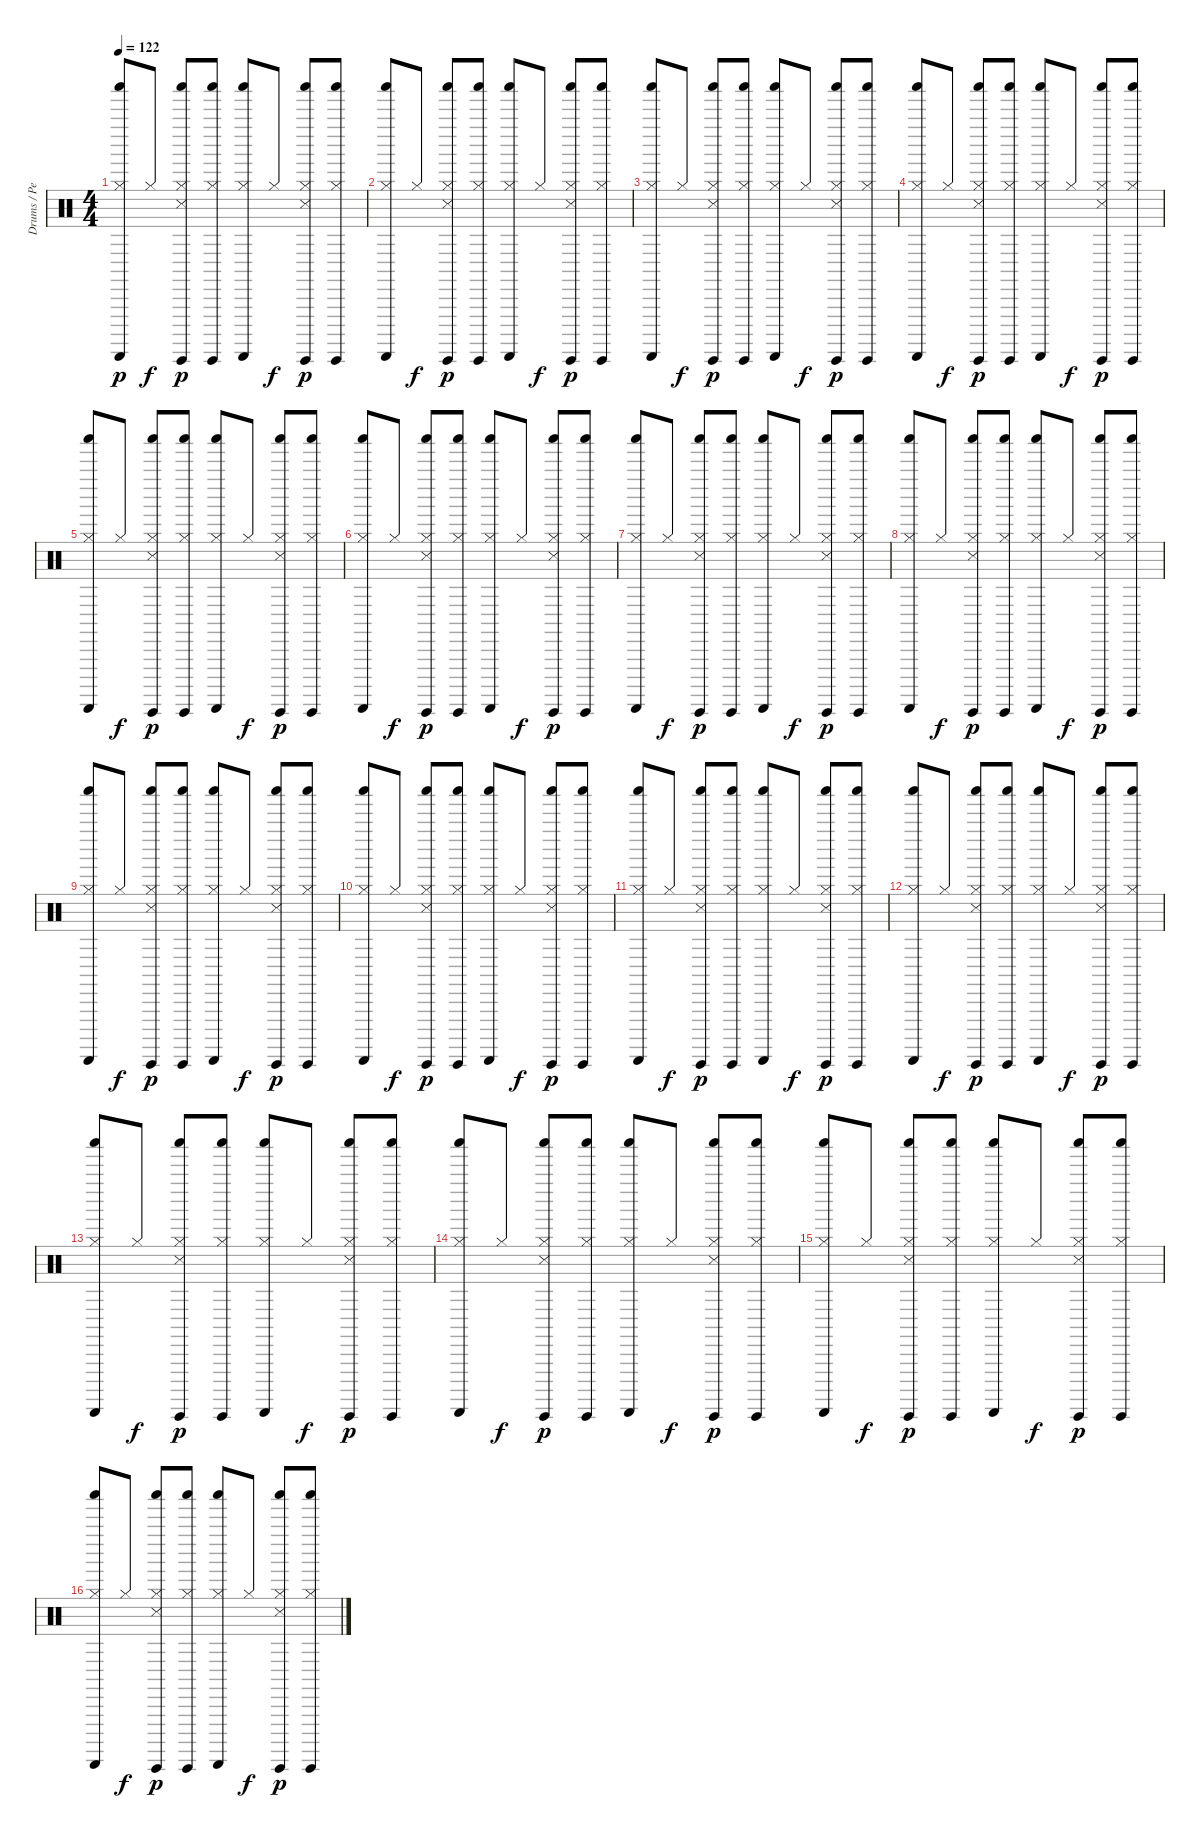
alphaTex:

\track ("Drums / Percussion" "Drums / Pe") {instrument percussion}
\staff {score}
\articulation defaults
\ts (4 4)
\tempo 122
\clef neutral
\ks c
("Hi-Hat (closed)" "Shaker (hit)" "Guiro (scrap-return)").8{dy p} "Hi-Hat (closed)".8{dy f} ("Hi-Hat (closed)" "Shaker (hit)" "Guiro (hit)" "Snare (side stick) 3").8{dy p} ("Hi-Hat (closed)" "Shaker (hit)" "Guiro (hit)").8 ("Hi-Hat (closed)" "Shaker (hit)" "Guiro (scrap-return)").8 "Hi-Hat (closed)".8{dy f} ("Hi-Hat (closed)" "Shaker (hit)" "Guiro (hit)" "Snare (side stick) 3").8{dy p} ("Hi-Hat (closed)" "Shaker (hit)" "Guiro (hit)").8 |
("Hi-Hat (closed)" "Shaker (hit)" "Guiro (scrap-return)").8 "Hi-Hat (closed)".8{dy f} ("Hi-Hat (closed)" "Shaker (hit)" "Guiro (hit)" "Snare (side stick) 3").8{dy p} ("Hi-Hat (closed)" "Shaker (hit)" "Guiro (hit)").8 ("Hi-Hat (closed)" "Shaker (hit)" "Guiro (scrap-return)").8 "Hi-Hat (closed)".8{dy f} ("Hi-Hat (closed)" "Shaker (hit)" "Guiro (hit)" "Snare (side stick) 3").8{dy p} ("Hi-Hat (closed)" "Shaker (hit)" "Guiro (hit)").8 |
("Hi-Hat (closed)" "Shaker (hit)" "Guiro (scrap-return)").8 "Hi-Hat (closed)".8{dy f} ("Hi-Hat (closed)" "Shaker (hit)" "Guiro (hit)" "Snare (side stick) 3").8{dy p} ("Hi-Hat (closed)" "Shaker (hit)" "Guiro (hit)").8 ("Hi-Hat (closed)" "Shaker (hit)" "Guiro (scrap-return)").8 "Hi-Hat (closed)".8{dy f} ("Hi-Hat (closed)" "Shaker (hit)" "Guiro (hit)" "Snare (side stick) 3").8{dy p} ("Hi-Hat (closed)" "Shaker (hit)" "Guiro (hit)").8 |
("Hi-Hat (closed)" "Shaker (hit)" "Guiro (scrap-return)").8 "Hi-Hat (closed)".8{dy f} ("Hi-Hat (closed)" "Shaker (hit)" "Guiro (hit)" "Snare (side stick) 3").8{dy p} ("Hi-Hat (closed)" "Shaker (hit)" "Guiro (hit)").8 ("Hi-Hat (closed)" "Shaker (hit)" "Guiro (scrap-return)").8 "Hi-Hat (closed)".8{dy f} ("Hi-Hat (closed)" "Shaker (hit)" "Guiro (hit)" "Snare (side stick) 3").8{dy p} ("Hi-Hat (closed)" "Shaker (hit)" "Guiro (hit)").8 |
("Hi-Hat (closed)" "Shaker (hit)" "Guiro (scrap-return)").8 "Hi-Hat (closed)".8{dy f} ("Hi-Hat (closed)" "Shaker (hit)" "Guiro (hit)" "Snare (side stick) 3").8{dy p} ("Hi-Hat (closed)" "Shaker (hit)" "Guiro (hit)").8 ("Hi-Hat (closed)" "Shaker (hit)" "Guiro (scrap-return)").8 "Hi-Hat (closed)".8{dy f} ("Hi-Hat (closed)" "Shaker (hit)" "Guiro (hit)" "Snare (side stick) 3").8{dy p} ("Hi-Hat (closed)" "Shaker (hit)" "Guiro (hit)").8 |
("Hi-Hat (closed)" "Shaker (hit)" "Guiro (scrap-return)").8 "Hi-Hat (closed)".8{dy f} ("Hi-Hat (closed)" "Shaker (hit)" "Guiro (hit)" "Snare (side stick) 3").8{dy p} ("Hi-Hat (closed)" "Shaker (hit)" "Guiro (hit)").8 ("Hi-Hat (closed)" "Shaker (hit)" "Guiro (scrap-return)").8 "Hi-Hat (closed)".8{dy f} ("Hi-Hat (closed)" "Shaker (hit)" "Guiro (hit)" "Snare (side stick) 3").8{dy p} ("Hi-Hat (closed)" "Shaker (hit)" "Guiro (hit)").8 |
("Hi-Hat (closed)" "Shaker (hit)" "Guiro (scrap-return)").8 "Hi-Hat (closed)".8{dy f} ("Hi-Hat (closed)" "Shaker (hit)" "Guiro (hit)" "Snare (side stick) 3").8{dy p} ("Hi-Hat (closed)" "Shaker (hit)" "Guiro (hit)").8 ("Hi-Hat (closed)" "Shaker (hit)" "Guiro (scrap-return)").8 "Hi-Hat (closed)".8{dy f} ("Hi-Hat (closed)" "Shaker (hit)" "Guiro (hit)" "Snare (side stick) 3").8{dy p} ("Hi-Hat (closed)" "Shaker (hit)" "Guiro (hit)").8 |
("Hi-Hat (closed)" "Shaker (hit)" "Guiro (scrap-return)").8 "Hi-Hat (closed)".8{dy f} ("Hi-Hat (closed)" "Shaker (hit)" "Guiro (hit)" "Snare (side stick) 3").8{dy p} ("Hi-Hat (closed)" "Shaker (hit)" "Guiro (hit)").8 ("Hi-Hat (closed)" "Shaker (hit)" "Guiro (scrap-return)").8 "Hi-Hat (closed)".8{dy f} ("Hi-Hat (closed)" "Shaker (hit)" "Guiro (hit)" "Snare (side stick) 3").8{dy p} ("Hi-Hat (closed)" "Shaker (hit)" "Guiro (hit)").8 |
("Hi-Hat (closed)" "Shaker (hit)" "Guiro (scrap-return)").8 "Hi-Hat (closed)".8{dy f} ("Hi-Hat (closed)" "Shaker (hit)" "Guiro (hit)" "Snare (side stick) 3").8{dy p} ("Hi-Hat (closed)" "Shaker (hit)" "Guiro (hit)").8 ("Hi-Hat (closed)" "Shaker (hit)" "Guiro (scrap-return)").8 "Hi-Hat (closed)".8{dy f} ("Hi-Hat (closed)" "Shaker (hit)" "Guiro (hit)" "Snare (side stick) 3").8{dy p} ("Hi-Hat (closed)" "Shaker (hit)" "Guiro (hit)").8 |
("Hi-Hat (closed)" "Shaker (hit)" "Guiro (scrap-return)").8 "Hi-Hat (closed)".8{dy f} ("Hi-Hat (closed)" "Shaker (hit)" "Guiro (hit)" "Snare (side stick) 3").8{dy p} ("Hi-Hat (closed)" "Shaker (hit)" "Guiro (hit)").8 ("Hi-Hat (closed)" "Shaker (hit)" "Guiro (scrap-return)").8 "Hi-Hat (closed)".8{dy f} ("Hi-Hat (closed)" "Shaker (hit)" "Guiro (hit)" "Snare (side stick) 3").8{dy p} ("Hi-Hat (closed)" "Shaker (hit)" "Guiro (hit)").8 |
("Hi-Hat (closed)" "Shaker (hit)" "Guiro (scrap-return)").8 "Hi-Hat (closed)".8{dy f} ("Hi-Hat (closed)" "Shaker (hit)" "Guiro (hit)" "Snare (side stick) 3").8{dy p} ("Hi-Hat (closed)" "Shaker (hit)" "Guiro (hit)").8 ("Hi-Hat (closed)" "Shaker (hit)" "Guiro (scrap-return)").8 "Hi-Hat (closed)".8{dy f} ("Hi-Hat (closed)" "Shaker (hit)" "Guiro (hit)" "Snare (side stick) 3").8{dy p} ("Hi-Hat (closed)" "Shaker (hit)" "Guiro (hit)").8 |
("Hi-Hat (closed)" "Shaker (hit)" "Guiro (scrap-return)").8 "Hi-Hat (closed)".8{dy f} ("Hi-Hat (closed)" "Shaker (hit)" "Guiro (hit)" "Snare (side stick) 3").8{dy p} ("Hi-Hat (closed)" "Shaker (hit)" "Guiro (hit)").8 ("Hi-Hat (closed)" "Shaker (hit)" "Guiro (scrap-return)").8 "Hi-Hat (closed)".8{dy f} ("Hi-Hat (closed)" "Shaker (hit)" "Guiro (hit)" "Snare (side stick) 3").8{dy p} ("Hi-Hat (closed)" "Shaker (hit)" "Guiro (hit)").8 |
("Hi-Hat (closed)" "Shaker (hit)" "Guiro (scrap-return)").8 "Hi-Hat (closed)".8{dy f} ("Hi-Hat (closed)" "Shaker (hit)" "Guiro (hit)" "Snare (side stick) 3").8{dy p} ("Hi-Hat (closed)" "Shaker (hit)" "Guiro (hit)").8 ("Hi-Hat (closed)" "Shaker (hit)" "Guiro (scrap-return)").8 "Hi-Hat (closed)".8{dy f} ("Hi-Hat (closed)" "Shaker (hit)" "Guiro (hit)" "Snare (side stick) 3").8{dy p} ("Hi-Hat (closed)" "Shaker (hit)" "Guiro (hit)").8 |
("Hi-Hat (closed)" "Shaker (hit)" "Guiro (scrap-return)").8 "Hi-Hat (closed)".8{dy f} ("Hi-Hat (closed)" "Shaker (hit)" "Guiro (hit)" "Snare (side stick) 3").8{dy p} ("Hi-Hat (closed)" "Shaker (hit)" "Guiro (hit)").8 ("Hi-Hat (closed)" "Shaker (hit)" "Guiro (scrap-return)").8 "Hi-Hat (closed)".8{dy f} ("Hi-Hat (closed)" "Shaker (hit)" "Guiro (hit)" "Snare (side stick) 3").8{dy p} ("Hi-Hat (closed)" "Shaker (hit)" "Guiro (hit)").8 |
("Hi-Hat (closed)" "Shaker (hit)" "Guiro (scrap-return)").8 "Hi-Hat (closed)".8{dy f} ("Hi-Hat (closed)" "Shaker (hit)" "Guiro (hit)" "Snare (side stick) 3").8{dy p} ("Hi-Hat (closed)" "Shaker (hit)" "Guiro (hit)").8 ("Hi-Hat (closed)" "Shaker (hit)" "Guiro (scrap-return)").8 "Hi-Hat (closed)".8{dy f} ("Hi-Hat (closed)" "Shaker (hit)" "Guiro (hit)" "Snare (side stick) 3").8{dy p} ("Hi-Hat (closed)" "Shaker (hit)" "Guiro (hit)").8 |
("Hi-Hat (closed)" "Shaker (hit)" "Guiro (scrap-return)").8 "Hi-Hat (closed)".8{dy f} ("Hi-Hat (closed)" "Shaker (hit)" "Guiro (hit)" "Snare (side stick) 3").8{dy p} ("Hi-Hat (closed)" "Shaker (hit)" "Guiro (hit)").8 ("Hi-Hat (closed)" "Shaker (hit)" "Guiro (scrap-return)").8 "Hi-Hat (closed)".8{dy f} ("Hi-Hat (closed)" "Shaker (hit)" "Guiro (hit)" "Snare (side stick) 3").8{dy p} ("Hi-Hat (closed)" "Shaker (hit)" "Guiro (hit)").8
